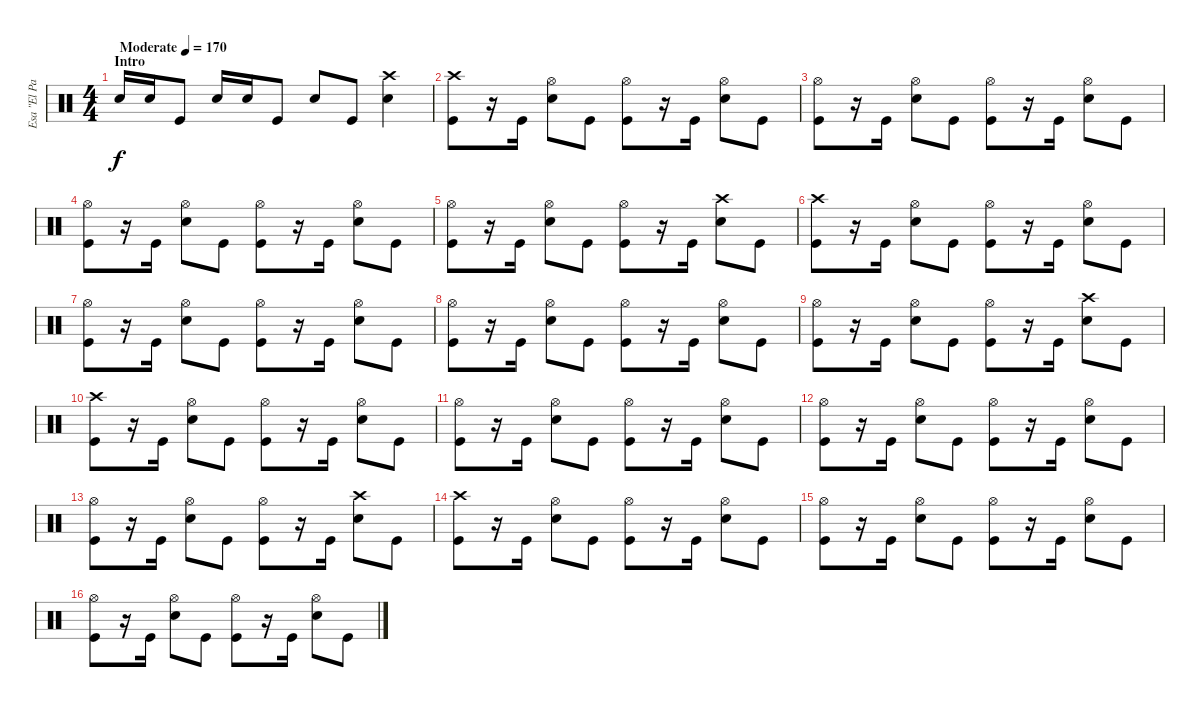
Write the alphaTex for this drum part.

\track ("Esa \"El Pasaderia\" Palosaari" "Esa \"El Pa") {instrument percussion}
\staff {score}
\articulation defaults
\ts (4 4)
\section ("" "Intro")
\tempo (170 "Moderate")
\clef neutral
\ks c "Snare (hit) 2".16{dy f} "Snare (hit) 2".16 "Kick (hit)".8 "Snare (hit) 2".16 "Snare (hit) 2".16 "Kick (hit)".8 "Snare (hit) 2".8 "Kick (hit)".8
("Crash high (hit)" "Snare (hit) 2").4 |
("Crash high (hit)" "Kick (hit)").8 r.16 "Kick (hit)".16 ("Hi-Hat (open)" "Snare (hit) 2").8 "Kick (hit)".8 ("Hi-Hat (open)" "Kick (hit)").8 r.16 "Kick (hit)".16 ("Hi-Hat (open)" "Snare (hit) 2").8 "Kick (hit)".8 |
("Hi-Hat (open)" "Kick (hit)").8 r.16 "Kick (hit)".16 ("Hi-Hat (open)" "Snare (hit) 2").8 "Kick (hit)".8 ("Hi-Hat (open)" "Kick (hit)").8 r.16 "Kick (hit)".16 ("Hi-Hat (open)" "Snare (hit) 2").8 "Kick (hit)".8 |
("Hi-Hat (open)" "Kick (hit)").8 r.16 "Kick (hit)".16 ("Hi-Hat (open)" "Snare (hit) 2").8 "Kick (hit)".8 ("Hi-Hat (open)" "Kick (hit)").8 r.16 "Kick (hit)".16 ("Hi-Hat (open)" "Snare (hit) 2").8 "Kick (hit)".8 |
("Hi-Hat (open)" "Kick (hit)").8 r.16 "Kick (hit)".16 ("Hi-Hat (open)" "Snare (hit) 2").8 "Kick (hit)".8 ("Hi-Hat (open)" "Kick (hit)").8 r.16 "Kick (hit)".16 ("Crash high (hit)" "Snare (hit) 2").8 "Kick (hit)".8 |
("Crash high (hit)" "Kick (hit)").8 r.16 "Kick (hit)".16 ("Hi-Hat (open)" "Snare (hit) 2").8 "Kick (hit)".8 ("Hi-Hat (open)" "Kick (hit)").8 r.16 "Kick (hit)".16 ("Hi-Hat (open)" "Snare (hit) 2").8 "Kick (hit)".8 |
("Hi-Hat (open)" "Kick (hit)").8 r.16 "Kick (hit)".16 ("Hi-Hat (open)" "Snare (hit) 2").8 "Kick (hit)".8 ("Hi-Hat (open)" "Kick (hit)").8 r.16 "Kick (hit)".16 ("Hi-Hat (open)" "Snare (hit) 2").8 "Kick (hit)".8 |
("Hi-Hat (open)" "Kick (hit)").8 r.16 "Kick (hit)".16 ("Hi-Hat (open)" "Snare (hit) 2").8 "Kick (hit)".8 ("Hi-Hat (open)" "Kick (hit)").8 r.16 "Kick (hit)".16 ("Hi-Hat (open)" "Snare (hit) 2").8 "Kick (hit)".8 |
("Hi-Hat (open)" "Kick (hit)").8 r.16 "Kick (hit)".16 ("Hi-Hat (open)" "Snare (hit) 2").8 "Kick (hit)".8 ("Hi-Hat (open)" "Kick (hit)").8 r.16 "Kick (hit)".16 ("Crash high (hit)" "Snare (hit) 2").8 "Kick (hit)".8 |
("Crash high (hit)" "Kick (hit)").8 r.16 "Kick (hit)".16 ("Hi-Hat (open)" "Snare (hit) 2").8 "Kick (hit)".8 ("Hi-Hat (open)" "Kick (hit)").8 r.16 "Kick (hit)".16 ("Hi-Hat (open)" "Snare (hit) 2").8 "Kick (hit)".8 |
("Hi-Hat (open)" "Kick (hit)").8 r.16 "Kick (hit)".16 ("Hi-Hat (open)" "Snare (hit) 2").8 "Kick (hit)".8 ("Hi-Hat (open)" "Kick (hit)").8 r.16 "Kick (hit)".16 ("Hi-Hat (open)" "Snare (hit) 2").8 "Kick (hit)".8 |
("Hi-Hat (open)" "Kick (hit)").8 r.16 "Kick (hit)".16 ("Hi-Hat (open)" "Snare (hit) 2").8 "Kick (hit)".8 ("Hi-Hat (open)" "Kick (hit)").8 r.16 "Kick (hit)".16 ("Hi-Hat (open)" "Snare (hit) 2").8 "Kick (hit)".8 |
("Hi-Hat (open)" "Kick (hit)").8 r.16 "Kick (hit)".16 ("Hi-Hat (open)" "Snare (hit) 2").8 "Kick (hit)".8 ("Hi-Hat (open)" "Kick (hit)").8 r.16 "Kick (hit)".16 ("Crash high (hit)" "Snare (hit) 2").8 "Kick (hit)".8 |
("Crash high (hit)" "Kick (hit)").8 r.16 "Kick (hit)".16 ("Hi-Hat (open)" "Snare (hit) 2").8 "Kick (hit)".8 ("Hi-Hat (open)" "Kick (hit)").8 r.16 "Kick (hit)".16 ("Hi-Hat (open)" "Snare (hit) 2").8 "Kick (hit)".8 |
("Hi-Hat (open)" "Kick (hit)").8 r.16 "Kick (hit)".16 ("Hi-Hat (open)" "Snare (hit) 2").8 "Kick (hit)".8 ("Hi-Hat (open)" "Kick (hit)").8 r.16 "Kick (hit)".16 ("Hi-Hat (open)" "Snare (hit) 2").8 "Kick (hit)".8 |
("Hi-Hat (open)" "Kick (hit)").8 r.16 "Kick (hit)".16 ("Hi-Hat (open)" "Snare (hit) 2").8 "Kick (hit)".8 ("Hi-Hat (open)" "Kick (hit)").8 r.16 "Kick (hit)".16 ("Hi-Hat (open)" "Snare (hit) 2").8 "Kick (hit)".8
